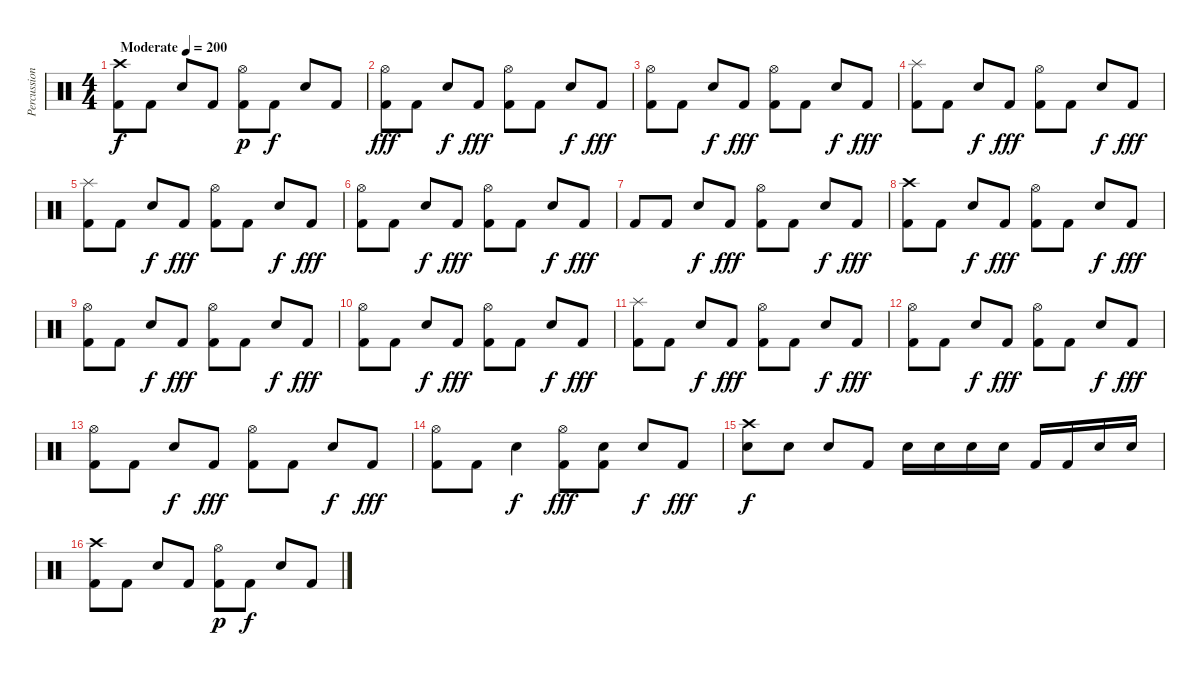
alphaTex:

\track ("Percussion" "Percussion") {instrument percussion}
\staff {score}
\articulation defaults
\ts (4 4)
\tempo (200 "Moderate")
\clef neutral
\ks c
("Crash high (hit)" "Kick (hit) 2").8{dy f} "Kick (hit) 2".8 "Electric Snare (hit)".8 "Kick (hit) 2".8 ("Hi-Hat (open)" "Kick (hit) 2").8{dy p} "Kick (hit) 2".8{dy f} "Electric Snare (hit)".8 "Kick (hit) 2".8 |
("Hi-Hat (open)" "Kick (hit) 2").8{dy fff} "Kick (hit) 2".8 "Electric Snare (hit)".8{dy f} "Kick (hit) 2".8{dy fff} ("Hi-Hat (open)" "Kick (hit) 2").8 "Kick (hit) 2".8 "Electric Snare (hit)".8{dy f} "Kick (hit) 2".8{dy fff} |
("Hi-Hat (open)" "Kick (hit) 2").8 "Kick (hit) 2".8 "Electric Snare (hit)".8{dy f} "Kick (hit) 2".8{dy fff} ("Hi-Hat (open)" "Kick (hit) 2").8 "Kick (hit) 2".8 "Electric Snare (hit)".8{dy f} "Kick (hit) 2".8{dy fff} |
("Splash (hit)" "Kick (hit) 2").8 "Kick (hit) 2".8 "Electric Snare (hit)".8{dy f} "Kick (hit) 2".8{dy fff} ("Hi-Hat (open)" "Kick (hit) 2").8 "Kick (hit) 2".8 "Electric Snare (hit)".8{dy f} "Kick (hit) 2".8{dy fff} |
("Splash (hit)" "Kick (hit) 2").8 "Kick (hit) 2".8 "Electric Snare (hit)".8{dy f} "Kick (hit) 2".8{dy fff} ("Hi-Hat (open)" "Kick (hit) 2").8 "Kick (hit) 2".8 "Electric Snare (hit)".8{dy f} "Kick (hit) 2".8{dy fff} |
("Hi-Hat (open)" "Kick (hit) 2").8 "Kick (hit) 2".8 "Electric Snare (hit)".8{dy f} "Kick (hit) 2".8{dy fff} ("Hi-Hat (open)" "Kick (hit) 2").8 "Kick (hit) 2".8 "Electric Snare (hit)".8{dy f} "Kick (hit) 2".8{dy fff} |
"Kick (hit) 2".8 "Kick (hit) 2".8 "Electric Snare (hit)".8{dy f} "Kick (hit) 2".8{dy fff} ("Hi-Hat (open)" "Kick (hit) 2").8 "Kick (hit) 2".8 "Electric Snare (hit)".8{dy f} "Kick (hit) 2".8{dy fff} |
("Crash high (hit)" "Kick (hit) 2").8 "Kick (hit) 2".8 "Electric Snare (hit)".8{dy f} "Kick (hit) 2".8{dy fff} ("Hi-Hat (open)" "Kick (hit) 2").8 "Kick (hit) 2".8 "Electric Snare (hit)".8{dy f} "Kick (hit) 2".8{dy fff} |
("Hi-Hat (open)" "Kick (hit) 2").8 "Kick (hit) 2".8 "Electric Snare (hit)".8{dy f} "Kick (hit) 2".8{dy fff} ("Hi-Hat (open)" "Kick (hit) 2").8 "Kick (hit) 2".8 "Electric Snare (hit)".8{dy f} "Kick (hit) 2".8{dy fff} |
("Hi-Hat (open)" "Kick (hit) 2").8 "Kick (hit) 2".8 "Electric Snare (hit)".8{dy f} "Kick (hit) 2".8{dy fff} ("Hi-Hat (open)" "Kick (hit) 2").8 "Kick (hit) 2".8 "Electric Snare (hit)".8{dy f} "Kick (hit) 2".8{dy fff} |
("Splash (hit)" "Kick (hit) 2").8 "Kick (hit) 2".8 "Electric Snare (hit)".8{dy f} "Kick (hit) 2".8{dy fff} ("Hi-Hat (open)" "Kick (hit) 2").8 "Kick (hit) 2".8 "Electric Snare (hit)".8{dy f} "Kick (hit) 2".8{dy fff} |
("Hi-Hat (open)" "Kick (hit) 2").8 "Kick (hit) 2".8 "Electric Snare (hit)".8{dy f} "Kick (hit) 2".8{dy fff} ("Hi-Hat (open)" "Kick (hit) 2").8 "Kick (hit) 2".8 "Electric Snare (hit)".8{dy f} "Kick (hit) 2".8{dy fff} |
("Hi-Hat (open)" "Kick (hit) 2").8 "Kick (hit) 2".8 "Electric Snare (hit)".8{dy f} "Kick (hit) 2".8{dy fff} ("Hi-Hat (open)" "Kick (hit) 2").8 "Kick (hit) 2".8 "Electric Snare (hit)".8{dy f} "Kick (hit) 2".8{dy fff} |
("Hi-Hat (open)" "Kick (hit) 2").8 "Kick (hit) 2".8 "Electric Snare (hit)".4{dy f} ("Hi-Hat (open)" "Kick (hit) 2").8{dy fff} ("Electric Snare (hit)" "Kick (hit) 2").8 "Electric Snare (hit)".8{dy f} "Kick (hit) 2".8{dy fff} |
("Crash high (hit)" "Electric Snare (hit)").8{dy f} "Electric Snare (hit)".8 "Electric Snare (hit)".8 "Kick (hit) 2".8 "Electric Snare (hit)".16 "Electric Snare (hit)".16 "Electric Snare (hit)".16 "Electric Snare (hit)".16 "Kick (hit) 2".16 "Kick (hit) 2".16 "Electric Snare (hit)".16 "Electric Snare (hit)".16 |
("Crash high (hit)" "Kick (hit) 2").8 "Kick (hit) 2".8 "Electric Snare (hit)".8 "Kick (hit) 2".8 ("Hi-Hat (open)" "Kick (hit) 2").8{dy p} "Kick (hit) 2".8{dy f} "Electric Snare (hit)".8 "Kick (hit) 2".8
